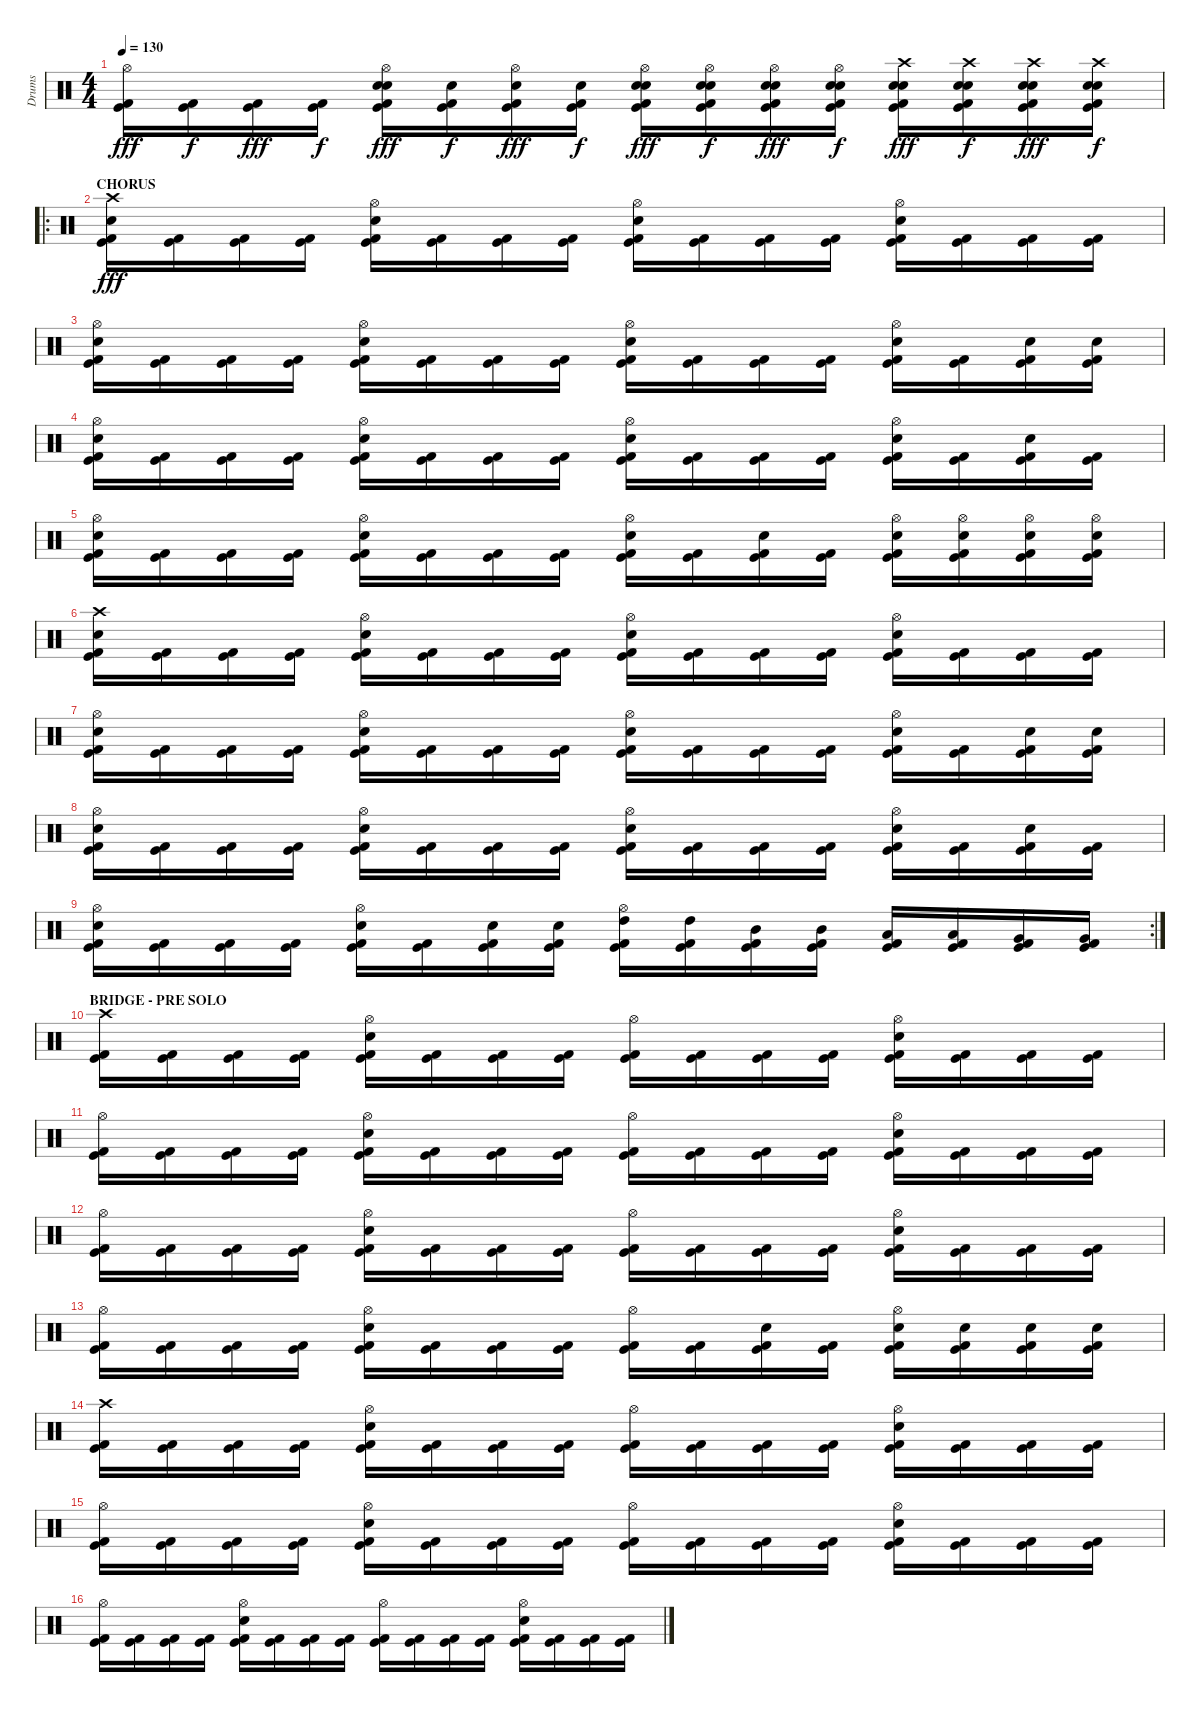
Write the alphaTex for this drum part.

\track ("Drums" "Drums") {instrument percussion}
\staff {score}
\articulation defaults
\ts (4 4)
\tempo 130
\clef neutral
\ks c
("Hi-Hat (open)" "Kick (hit)" "Kick (hit) 2").16{dy fff} ("Kick (hit)" "Kick (hit) 2").16{dy f} ("Kick (hit)" "Kick (hit) 2").16{dy fff} ("Kick (hit)" "Kick (hit) 2").16{dy f} ("Hi-Hat (open)" "Electric Snare (hit)" "Electric Snare (hit)" "Kick (hit)" "Kick (hit) 2").16{dy fff} ("Electric Snare (hit)" "Kick (hit)" "Kick (hit) 2").16{dy f} ("Hi-Hat (open)" "Electric Snare (hit)" "Kick (hit)" "Kick (hit) 2").16{dy fff} ("Electric Snare (hit)" "Kick (hit)" "Kick (hit) 2").16{dy f} ("Hi-Hat (open)" "Electric Snare (hit)" "Electric Snare (hit)" "Kick (hit)" "Kick (hit) 2").16{dy fff} ("Hi-Hat (open)" "Electric Snare (hit)" "Electric Snare (hit)" "Kick (hit)" "Kick (hit) 2").16{dy f} ("Hi-Hat (open)" "Electric Snare (hit)" "Electric Snare (hit)" "Kick (hit)" "Kick (hit) 2").16{dy fff} ("Hi-Hat (open)" "Electric Snare (hit)" "Electric Snare (hit)" "Kick (hit)" "Kick (hit) 2").16{dy f} ("Crash high (hit)" "Electric Snare (hit)" "Electric Snare (hit)" "Kick (hit)" "Kick (hit) 2").16{dy fff} ("Crash high (hit)" "Electric Snare (hit)" "Electric Snare (hit)" "Kick (hit)" "Kick (hit) 2").16{dy f} ("Crash high (hit)" "Electric Snare (hit)" "Electric Snare (hit)" "Kick (hit)" "Kick (hit) 2").16{dy fff} ("Crash high (hit)" "Electric Snare (hit)" "Electric Snare (hit)" "Kick (hit)" "Kick (hit) 2").16{dy f} |
\ro
\section ("" "CHORUS")
("Crash high (hit)" "Electric Snare (hit)" "Kick (hit)" "Kick (hit) 2").16{dy fff} ("Kick (hit)" "Kick (hit) 2").16 ("Kick (hit)" "Kick (hit) 2").16 ("Kick (hit)" "Kick (hit) 2").16 ("Hi-Hat (open)" "Electric Snare (hit)" "Kick (hit)" "Kick (hit) 2").16 ("Kick (hit)" "Kick (hit) 2").16 ("Kick (hit)" "Kick (hit) 2").16 ("Kick (hit)" "Kick (hit) 2").16 ("Hi-Hat (open)" "Electric Snare (hit)" "Kick (hit)" "Kick (hit) 2").16 ("Kick (hit)" "Kick (hit) 2").16 ("Kick (hit)" "Kick (hit) 2").16 ("Kick (hit)" "Kick (hit) 2").16 ("Hi-Hat (open)" "Electric Snare (hit)" "Kick (hit)" "Kick (hit) 2").16 ("Kick (hit)" "Kick (hit) 2").16 ("Kick (hit)" "Kick (hit) 2").16 ("Kick (hit)" "Kick (hit) 2").16 |
("Hi-Hat (open)" "Electric Snare (hit)" "Kick (hit)" "Kick (hit) 2").16 ("Kick (hit)" "Kick (hit) 2").16 ("Kick (hit)" "Kick (hit) 2").16 ("Kick (hit)" "Kick (hit) 2").16 ("Hi-Hat (open)" "Electric Snare (hit)" "Kick (hit)" "Kick (hit) 2").16 ("Kick (hit)" "Kick (hit) 2").16 ("Kick (hit)" "Kick (hit) 2").16 ("Kick (hit)" "Kick (hit) 2").16 ("Hi-Hat (open)" "Electric Snare (hit)" "Kick (hit)" "Kick (hit) 2").16 ("Kick (hit)" "Kick (hit) 2").16 ("Kick (hit)" "Kick (hit) 2").16 ("Kick (hit)" "Kick (hit) 2").16 ("Hi-Hat (open)" "Electric Snare (hit)" "Kick (hit)" "Kick (hit) 2").16 ("Kick (hit)" "Kick (hit) 2").16 ("Electric Snare (hit)" "Kick (hit)" "Kick (hit) 2").16 ("Electric Snare (hit)" "Kick (hit)" "Kick (hit) 2").16 |
("Hi-Hat (open)" "Electric Snare (hit)" "Kick (hit)" "Kick (hit) 2").16 ("Kick (hit)" "Kick (hit) 2").16 ("Kick (hit)" "Kick (hit) 2").16 ("Kick (hit)" "Kick (hit) 2").16 ("Hi-Hat (open)" "Electric Snare (hit)" "Kick (hit)" "Kick (hit) 2").16 ("Kick (hit)" "Kick (hit) 2").16 ("Kick (hit)" "Kick (hit) 2").16 ("Kick (hit)" "Kick (hit) 2").16 ("Hi-Hat (open)" "Electric Snare (hit)" "Kick (hit)" "Kick (hit) 2").16 ("Kick (hit)" "Kick (hit) 2").16 ("Kick (hit)" "Kick (hit) 2").16 ("Kick (hit)" "Kick (hit) 2").16 ("Hi-Hat (open)" "Electric Snare (hit)" "Kick (hit)" "Kick (hit) 2").16 ("Kick (hit)" "Kick (hit) 2").16 ("Electric Snare (hit)" "Kick (hit)" "Kick (hit) 2").16 ("Kick (hit)" "Kick (hit) 2").16 |
("Hi-Hat (open)" "Electric Snare (hit)" "Kick (hit)" "Kick (hit) 2").16 ("Kick (hit)" "Kick (hit) 2").16 ("Kick (hit)" "Kick (hit) 2").16 ("Kick (hit)" "Kick (hit) 2").16 ("Hi-Hat (open)" "Electric Snare (hit)" "Kick (hit)" "Kick (hit) 2").16 ("Kick (hit)" "Kick (hit) 2").16 ("Kick (hit)" "Kick (hit) 2").16 ("Kick (hit)" "Kick (hit) 2").16 ("Hi-Hat (open)" "Electric Snare (hit)" "Kick (hit)" "Kick (hit) 2").16 ("Kick (hit)" "Kick (hit) 2").16 ("Electric Snare (hit)" "Kick (hit)" "Kick (hit) 2").16 ("Kick (hit)" "Kick (hit) 2").16 ("Hi-Hat (open)" "Electric Snare (hit)" "Kick (hit)" "Kick (hit) 2").16 ("Hi-Hat (open)" "Electric Snare (hit)" "Kick (hit)" "Kick (hit) 2").16 ("Hi-Hat (open)" "Electric Snare (hit)" "Kick (hit)" "Kick (hit) 2").16 ("Hi-Hat (open)" "Electric Snare (hit)" "Kick (hit)" "Kick (hit) 2").16 |
("Crash high (hit)" "Electric Snare (hit)" "Kick (hit)" "Kick (hit) 2").16 ("Kick (hit)" "Kick (hit) 2").16 ("Kick (hit)" "Kick (hit) 2").16 ("Kick (hit)" "Kick (hit) 2").16 ("Hi-Hat (open)" "Electric Snare (hit)" "Kick (hit)" "Kick (hit) 2").16 ("Kick (hit)" "Kick (hit) 2").16 ("Kick (hit)" "Kick (hit) 2").16 ("Kick (hit)" "Kick (hit) 2").16 ("Hi-Hat (open)" "Electric Snare (hit)" "Kick (hit)" "Kick (hit) 2").16 ("Kick (hit)" "Kick (hit) 2").16 ("Kick (hit)" "Kick (hit) 2").16 ("Kick (hit)" "Kick (hit) 2").16 ("Hi-Hat (open)" "Electric Snare (hit)" "Kick (hit)" "Kick (hit) 2").16 ("Kick (hit)" "Kick (hit) 2").16 ("Kick (hit)" "Kick (hit) 2").16 ("Kick (hit)" "Kick (hit) 2").16 |
("Hi-Hat (open)" "Electric Snare (hit)" "Kick (hit)" "Kick (hit) 2").16 ("Kick (hit)" "Kick (hit) 2").16 ("Kick (hit)" "Kick (hit) 2").16 ("Kick (hit)" "Kick (hit) 2").16 ("Hi-Hat (open)" "Electric Snare (hit)" "Kick (hit)" "Kick (hit) 2").16 ("Kick (hit)" "Kick (hit) 2").16 ("Kick (hit)" "Kick (hit) 2").16 ("Kick (hit)" "Kick (hit) 2").16 ("Hi-Hat (open)" "Electric Snare (hit)" "Kick (hit)" "Kick (hit) 2").16 ("Kick (hit)" "Kick (hit) 2").16 ("Kick (hit)" "Kick (hit) 2").16 ("Kick (hit)" "Kick (hit) 2").16 ("Hi-Hat (open)" "Electric Snare (hit)" "Kick (hit)" "Kick (hit) 2").16 ("Kick (hit)" "Kick (hit) 2").16 ("Electric Snare (hit)" "Kick (hit)" "Kick (hit) 2").16 ("Electric Snare (hit)" "Kick (hit)" "Kick (hit) 2").16 |
("Hi-Hat (open)" "Electric Snare (hit)" "Kick (hit)" "Kick (hit) 2").16 ("Kick (hit)" "Kick (hit) 2").16 ("Kick (hit)" "Kick (hit) 2").16 ("Kick (hit)" "Kick (hit) 2").16 ("Hi-Hat (open)" "Electric Snare (hit)" "Kick (hit)" "Kick (hit) 2").16 ("Kick (hit)" "Kick (hit) 2").16 ("Kick (hit)" "Kick (hit) 2").16 ("Kick (hit)" "Kick (hit) 2").16 ("Hi-Hat (open)" "Electric Snare (hit)" "Kick (hit)" "Kick (hit) 2").16 ("Kick (hit)" "Kick (hit) 2").16 ("Kick (hit)" "Kick (hit) 2").16 ("Kick (hit)" "Kick (hit) 2").16 ("Hi-Hat (open)" "Electric Snare (hit)" "Kick (hit)" "Kick (hit) 2").16 ("Kick (hit)" "Kick (hit) 2").16 ("Electric Snare (hit)" "Kick (hit)" "Kick (hit) 2").16 ("Kick (hit)" "Kick (hit) 2").16 |
\rc 2
("Hi-Hat (open)" "Electric Snare (hit)" "Kick (hit)" "Kick (hit) 2").16 ("Kick (hit)" "Kick (hit) 2").16 ("Kick (hit)" "Kick (hit) 2").16 ("Kick (hit)" "Kick (hit) 2").16 ("Hi-Hat (open)" "Electric Snare (hit)" "Kick (hit)" "Kick (hit) 2").16 ("Kick (hit)" "Kick (hit) 2").16 ("Electric Snare (hit)" "Kick (hit)" "Kick (hit) 2").16 ("Electric Snare (hit)" "Kick (hit)" "Kick (hit) 2").16 ("Hi-Hat (open)" "High Tom (hit)" "Kick (hit)" "Kick (hit) 2").16 ("High Tom (hit)" "Kick (hit)" "Kick (hit) 2").16 ("Mid Tom (hit)" "Kick (hit)" "Kick (hit) 2").16 ("Mid Tom (hit)" "Kick (hit)" "Kick (hit) 2").16 ("Low Tom (hit)" "Kick (hit)" "Kick (hit) 2").16 ("Low Tom (hit)" "Kick (hit)" "Kick (hit) 2").16 ("Very Low Tom (hit)" "Kick (hit)" "Kick (hit) 2").16 ("Very Low Tom (hit)" "Kick (hit)" "Kick (hit) 2").16 |
\section ("" "BRIDGE - PRE SOLO")
("Crash high (hit)" "Kick (hit)" "Kick (hit) 2").16 ("Kick (hit)" "Kick (hit) 2").16 ("Kick (hit)" "Kick (hit) 2").16 ("Kick (hit)" "Kick (hit) 2").16 ("Hi-Hat (open)" "Electric Snare (hit)" "Kick (hit)" "Kick (hit) 2").16 ("Kick (hit)" "Kick (hit) 2").16 ("Kick (hit)" "Kick (hit) 2").16 ("Kick (hit)" "Kick (hit) 2").16 ("Hi-Hat (open)" "Kick (hit)" "Kick (hit) 2").16 ("Kick (hit)" "Kick (hit) 2").16 ("Kick (hit)" "Kick (hit) 2").16 ("Kick (hit)" "Kick (hit) 2").16 ("Hi-Hat (open)" "Electric Snare (hit)" "Kick (hit)" "Kick (hit) 2").16 ("Kick (hit)" "Kick (hit) 2").16 ("Kick (hit)" "Kick (hit) 2").16 ("Kick (hit)" "Kick (hit) 2").16 |
("Hi-Hat (open)" "Kick (hit)" "Kick (hit) 2").16 ("Kick (hit)" "Kick (hit) 2").16 ("Kick (hit)" "Kick (hit) 2").16 ("Kick (hit)" "Kick (hit) 2").16 ("Hi-Hat (open)" "Electric Snare (hit)" "Kick (hit)" "Kick (hit) 2").16 ("Kick (hit)" "Kick (hit) 2").16 ("Kick (hit)" "Kick (hit) 2").16 ("Kick (hit)" "Kick (hit) 2").16 ("Hi-Hat (open)" "Kick (hit)" "Kick (hit) 2").16 ("Kick (hit)" "Kick (hit) 2").16 ("Kick (hit)" "Kick (hit) 2").16 ("Kick (hit)" "Kick (hit) 2").16 ("Hi-Hat (open)" "Electric Snare (hit)" "Kick (hit)" "Kick (hit) 2").16 ("Kick (hit)" "Kick (hit) 2").16 ("Kick (hit)" "Kick (hit) 2").16 ("Kick (hit)" "Kick (hit) 2").16 |
("Hi-Hat (open)" "Kick (hit)" "Kick (hit) 2").16 ("Kick (hit)" "Kick (hit) 2").16 ("Kick (hit)" "Kick (hit) 2").16 ("Kick (hit)" "Kick (hit) 2").16 ("Hi-Hat (open)" "Electric Snare (hit)" "Kick (hit)" "Kick (hit) 2").16 ("Kick (hit)" "Kick (hit) 2").16 ("Kick (hit)" "Kick (hit) 2").16 ("Kick (hit)" "Kick (hit) 2").16 ("Hi-Hat (open)" "Kick (hit)" "Kick (hit) 2").16 ("Kick (hit)" "Kick (hit) 2").16 ("Kick (hit)" "Kick (hit) 2").16 ("Kick (hit)" "Kick (hit) 2").16 ("Hi-Hat (open)" "Electric Snare (hit)" "Kick (hit)" "Kick (hit) 2").16 ("Kick (hit)" "Kick (hit) 2").16 ("Kick (hit)" "Kick (hit) 2").16 ("Kick (hit)" "Kick (hit) 2").16 |
("Hi-Hat (open)" "Kick (hit)" "Kick (hit) 2").16 ("Kick (hit)" "Kick (hit) 2").16 ("Kick (hit)" "Kick (hit) 2").16 ("Kick (hit)" "Kick (hit) 2").16 ("Hi-Hat (open)" "Electric Snare (hit)" "Kick (hit)" "Kick (hit) 2").16 ("Kick (hit)" "Kick (hit) 2").16 ("Kick (hit)" "Kick (hit) 2").16 ("Kick (hit)" "Kick (hit) 2").16 ("Hi-Hat (open)" "Kick (hit)" "Kick (hit) 2").16 ("Kick (hit)" "Kick (hit) 2").16 ("Electric Snare (hit)" "Kick (hit)" "Kick (hit) 2").16 ("Kick (hit)" "Kick (hit) 2").16 ("Hi-Hat (open)" "Electric Snare (hit)" "Kick (hit)" "Kick (hit) 2").16 ("Electric Snare (hit)" "Kick (hit)" "Kick (hit) 2").16 ("Electric Snare (hit)" "Kick (hit)" "Kick (hit) 2").16 ("Electric Snare (hit)" "Kick (hit)" "Kick (hit) 2").16 |
("Crash high (hit)" "Kick (hit)" "Kick (hit) 2").16 ("Kick (hit)" "Kick (hit) 2").16 ("Kick (hit)" "Kick (hit) 2").16 ("Kick (hit)" "Kick (hit) 2").16 ("Hi-Hat (open)" "Electric Snare (hit)" "Kick (hit)" "Kick (hit) 2").16 ("Kick (hit)" "Kick (hit) 2").16 ("Kick (hit)" "Kick (hit) 2").16 ("Kick (hit)" "Kick (hit) 2").16 ("Hi-Hat (open)" "Kick (hit)" "Kick (hit) 2").16 ("Kick (hit)" "Kick (hit) 2").16 ("Kick (hit)" "Kick (hit) 2").16 ("Kick (hit)" "Kick (hit) 2").16 ("Hi-Hat (open)" "Electric Snare (hit)" "Kick (hit)" "Kick (hit) 2").16 ("Kick (hit)" "Kick (hit) 2").16 ("Kick (hit)" "Kick (hit) 2").16 ("Kick (hit)" "Kick (hit) 2").16 |
("Hi-Hat (open)" "Kick (hit)" "Kick (hit) 2").16 ("Kick (hit)" "Kick (hit) 2").16 ("Kick (hit)" "Kick (hit) 2").16 ("Kick (hit)" "Kick (hit) 2").16 ("Hi-Hat (open)" "Electric Snare (hit)" "Kick (hit)" "Kick (hit) 2").16 ("Kick (hit)" "Kick (hit) 2").16 ("Kick (hit)" "Kick (hit) 2").16 ("Kick (hit)" "Kick (hit) 2").16 ("Hi-Hat (open)" "Kick (hit)" "Kick (hit) 2").16 ("Kick (hit)" "Kick (hit) 2").16 ("Kick (hit)" "Kick (hit) 2").16 ("Kick (hit)" "Kick (hit) 2").16 ("Hi-Hat (open)" "Electric Snare (hit)" "Kick (hit)" "Kick (hit) 2").16 ("Kick (hit)" "Kick (hit) 2").16 ("Kick (hit)" "Kick (hit) 2").16 ("Kick (hit)" "Kick (hit) 2").16 |
("Hi-Hat (open)" "Kick (hit)" "Kick (hit) 2").16 ("Kick (hit)" "Kick (hit) 2").16 ("Kick (hit)" "Kick (hit) 2").16 ("Kick (hit)" "Kick (hit) 2").16 ("Hi-Hat (open)" "Electric Snare (hit)" "Kick (hit)" "Kick (hit) 2").16 ("Kick (hit)" "Kick (hit) 2").16 ("Kick (hit)" "Kick (hit) 2").16 ("Kick (hit)" "Kick (hit) 2").16 ("Hi-Hat (open)" "Kick (hit)" "Kick (hit) 2").16 ("Kick (hit)" "Kick (hit) 2").16 ("Kick (hit)" "Kick (hit) 2").16 ("Kick (hit)" "Kick (hit) 2").16 ("Hi-Hat (open)" "Electric Snare (hit)" "Kick (hit)" "Kick (hit) 2").16 ("Kick (hit)" "Kick (hit) 2").16 ("Kick (hit)" "Kick (hit) 2").16 ("Kick (hit)" "Kick (hit) 2").16
